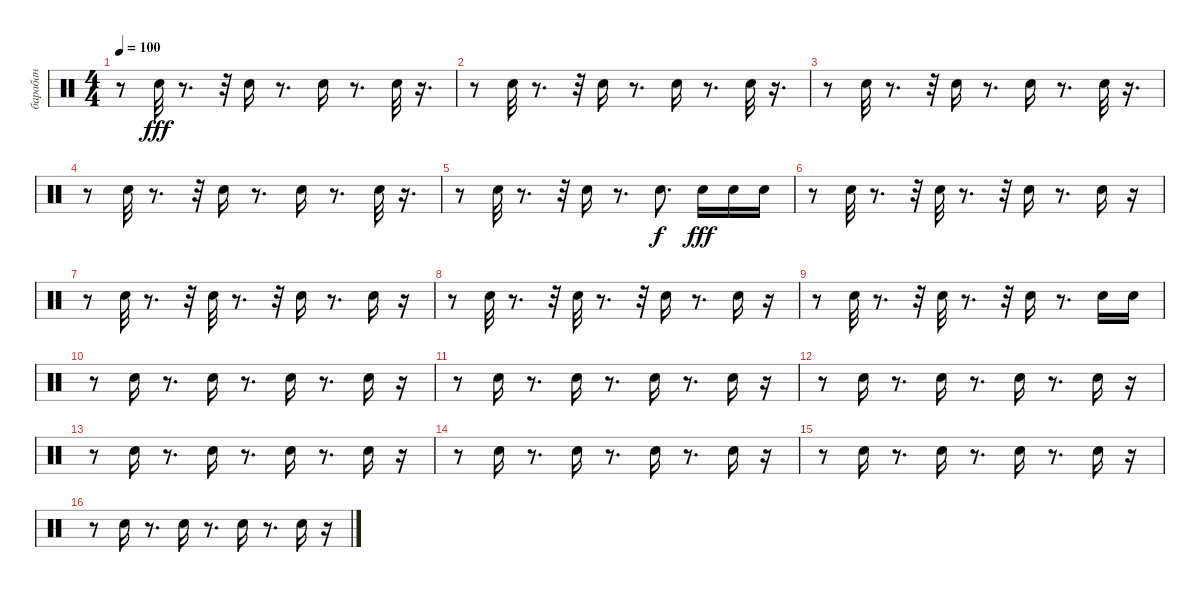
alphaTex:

\track ("барабан" "барабан") {instrument percussion}
\staff {score}
\articulation defaults
\ts (4 4)
\tempo 100
\clef neutral
\ks c
r.8{dy fff} "Snare (hit) 2".32 r.8{d} r.32 "Snare (hit) 2".16 r.8{d} "Snare (hit) 2".16 r.8{d} "Snare (hit) 2".32 r.16{d} |
r.8 "Snare (hit) 2".32 r.8{d} r.32 "Snare (hit) 2".16 r.8{d} "Snare (hit) 2".16 r.8{d} "Snare (hit) 2".32 r.16{d} |
r.8 "Snare (hit) 2".32 r.8{d} r.32 "Snare (hit) 2".16 r.8{d} "Snare (hit) 2".16 r.8{d} "Snare (hit) 2".32 r.16{d} |
r.8 "Snare (hit) 2".32 r.8{d} r.32 "Snare (hit) 2".16 r.8{d} "Snare (hit) 2".16 r.8{d} "Snare (hit) 2".32 r.16{d} |
r.8 "Snare (hit) 2".32 r.8{d} r.32 "Snare (hit) 2".16 r.8{d} "Snare (hit) 2".8{d dy f} "Snare (hit) 2".16{dy fff} "Snare (hit) 2".16 "Snare (hit) 2".16 |
r.8 "Snare (hit) 2".32 r.8{d} r.32 "Snare (hit) 2".32 r.8{d} r.32 "Snare (hit) 2".16 r.8{d} "Snare (hit) 2".16 r.16 |
r.8 "Snare (hit) 2".32 r.8{d} r.32 "Snare (hit) 2".32 r.8{d} r.32 "Snare (hit) 2".16 r.8{d} "Snare (hit) 2".16 r.16 |
r.8 "Snare (hit) 2".32 r.8{d} r.32 "Snare (hit) 2".32 r.8{d} r.32 "Snare (hit) 2".16 r.8{d} "Snare (hit) 2".16 r.16 |
r.8 "Snare (hit) 2".32 r.8{d} r.32 "Snare (hit) 2".32 r.8{d} r.32 "Snare (hit) 2".16 r.8{d} "Snare (hit) 2".16 "Snare (hit) 2".16 |
r.8 "Snare (hit) 2".16 r.8{d} "Snare (hit) 2".16 r.8{d} "Snare (hit) 2".16 r.8{d} "Snare (hit) 2".16 r.16 |
r.8 "Snare (hit) 2".16 r.8{d} "Snare (hit) 2".16 r.8{d} "Snare (hit) 2".16 r.8{d} "Snare (hit) 2".16 r.16 |
r.8 "Snare (hit) 2".16 r.8{d} "Snare (hit) 2".16 r.8{d} "Snare (hit) 2".16 r.8{d} "Snare (hit) 2".16 r.16 |
r.8 "Snare (hit) 2".16 r.8{d} "Snare (hit) 2".16 r.8{d} "Snare (hit) 2".16 r.8{d} "Snare (hit) 2".16 r.16 |
r.8 "Snare (hit) 2".16 r.8{d} "Snare (hit) 2".16 r.8{d} "Snare (hit) 2".16 r.8{d} "Snare (hit) 2".16 r.16 |
r.8 "Snare (hit) 2".16 r.8{d} "Snare (hit) 2".16 r.8{d} "Snare (hit) 2".16 r.8{d} "Snare (hit) 2".16 r.16 |
r.8 "Snare (hit) 2".16 r.8{d} "Snare (hit) 2".16 r.8{d} "Snare (hit) 2".16 r.8{d} "Snare (hit) 2".16 r.16
